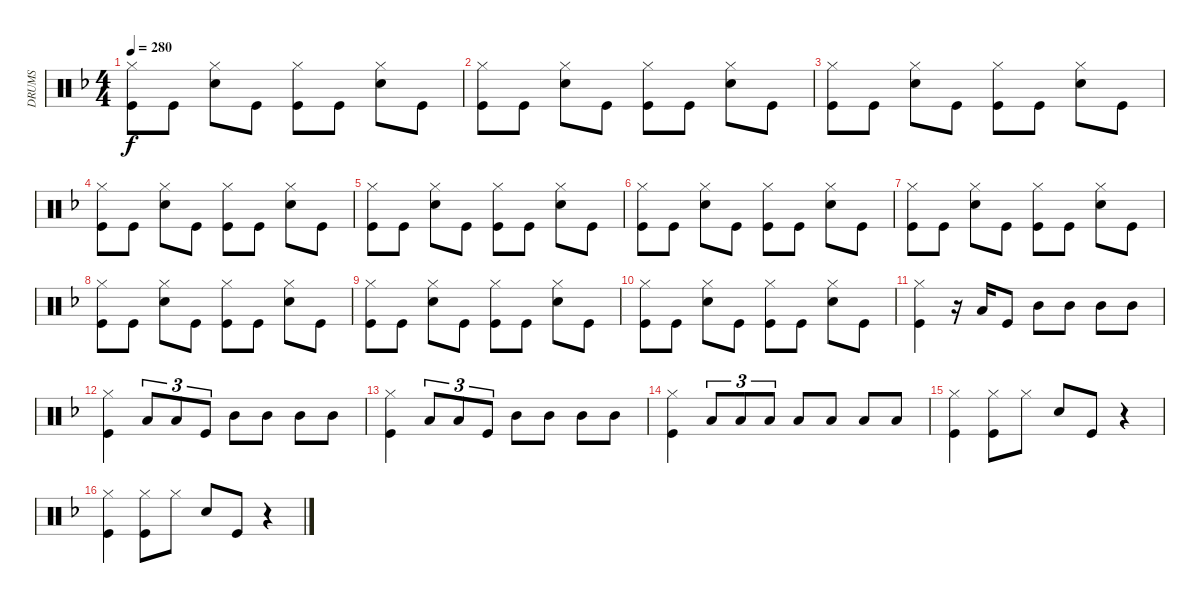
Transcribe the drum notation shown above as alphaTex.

\track ("DRUMS" "DRUMS") {instrument percussion}
\staff {score}
\articulation defaults
\ts (4 4)
\tempo 280
\clef neutral
\ks dminor
("Hi-Hat (closed)" "Kick (hit)").8{dy f} "Kick (hit)".8 ("Hi-Hat (closed)" "Snare (hit) 2").8 "Kick (hit)".8 ("Hi-Hat (closed)" "Kick (hit)").8 "Kick (hit)".8 ("Hi-Hat (closed)" "Snare (hit) 2").8 "Kick (hit)".8 |
("Hi-Hat (closed)" "Kick (hit)").8 "Kick (hit)".8 ("Hi-Hat (closed)" "Snare (hit) 2").8 "Kick (hit)".8 ("Hi-Hat (closed)" "Kick (hit)").8 "Kick (hit)".8 ("Hi-Hat (closed)" "Snare (hit) 2").8 "Kick (hit)".8 |
("Hi-Hat (closed)" "Kick (hit)").8 "Kick (hit)".8 ("Hi-Hat (closed)" "Snare (hit) 2").8 "Kick (hit)".8 ("Hi-Hat (closed)" "Kick (hit)").8 "Kick (hit)".8 ("Hi-Hat (closed)" "Snare (hit) 2").8 "Kick (hit)".8 |
("Hi-Hat (closed)" "Kick (hit)").8 "Kick (hit)".8 ("Hi-Hat (closed)" "Snare (hit) 2").8 "Kick (hit)".8 ("Hi-Hat (closed)" "Kick (hit)").8 "Kick (hit)".8 ("Hi-Hat (closed)" "Snare (hit) 2").8 "Kick (hit)".8 |
("Hi-Hat (closed)" "Kick (hit)").8 "Kick (hit)".8 ("Hi-Hat (closed)" "Snare (hit) 2").8 "Kick (hit)".8 ("Hi-Hat (closed)" "Kick (hit)").8 "Kick (hit)".8 ("Hi-Hat (closed)" "Snare (hit) 2").8 "Kick (hit)".8 |
("Hi-Hat (closed)" "Kick (hit)").8 "Kick (hit)".8 ("Hi-Hat (closed)" "Snare (hit) 2").8 "Kick (hit)".8 ("Hi-Hat (closed)" "Kick (hit)").8 "Kick (hit)".8 ("Hi-Hat (closed)" "Snare (hit) 2").8 "Kick (hit)".8 |
("Hi-Hat (closed)" "Kick (hit)").8 "Kick (hit)".8 ("Hi-Hat (closed)" "Snare (hit) 2").8 "Kick (hit)".8 ("Hi-Hat (closed)" "Kick (hit)").8 "Kick (hit)".8 ("Hi-Hat (closed)" "Snare (hit) 2").8 "Kick (hit)".8 |
("Hi-Hat (closed)" "Kick (hit)").8 "Kick (hit)".8 ("Hi-Hat (closed)" "Snare (hit) 2").8 "Kick (hit)".8 ("Hi-Hat (closed)" "Kick (hit)").8 "Kick (hit)".8 ("Hi-Hat (closed)" "Snare (hit) 2").8 "Kick (hit)".8 |
("Hi-Hat (closed)" "Kick (hit)").8 "Kick (hit)".8 ("Hi-Hat (closed)" "Snare (hit) 2").8 "Kick (hit)".8 ("Hi-Hat (closed)" "Kick (hit)").8 "Kick (hit)".8 ("Hi-Hat (closed)" "Snare (hit) 2").8 "Kick (hit)".8 |
("Hi-Hat (closed)" "Kick (hit)").8 "Kick (hit)".8 ("Hi-Hat (closed)" "Snare (hit) 2").8 "Kick (hit)".8 ("Hi-Hat (closed)" "Kick (hit)").8 "Kick (hit)".8 ("Hi-Hat (closed)" "Snare (hit) 2").8 "Kick (hit)".8 |
("Hi-Hat (closed)" "Kick (hit)").4 r.16 "Low Tom (hit)".16 "Kick (hit)".8 "Mid Tom (hit)".8 "Mid Tom (hit)".8 "Mid Tom (hit)".8 "Mid Tom (hit)".8 |
("Hi-Hat (closed)" "Kick (hit)").4 "Low Tom (hit)".8{tu (3 2)} "Low Tom (hit)".8{tu (3 2)} "Kick (hit)".8{tu (3 2)} "Mid Tom (hit)".8 "Mid Tom (hit)".8 "Mid Tom (hit)".8 "Mid Tom (hit)".8 |
("Hi-Hat (closed)" "Kick (hit)").4 "Low Tom (hit)".8{tu (3 2)} "Low Tom (hit)".8{tu (3 2)} "Kick (hit)".8{tu (3 2)} "Mid Tom (hit)".8 "Mid Tom (hit)".8 "Mid Tom (hit)".8 "Mid Tom (hit)".8 |
("Hi-Hat (closed)" "Kick (hit)").4 "Low Tom (hit)".8{tu (3 2)} "Low Tom (hit)".8{tu (3 2)} "Low Tom (hit)".8{tu (3 2)} "Low Tom (hit)".8 "Low Tom (hit)".8 "Low Tom (hit)".8 "Low Tom (hit)".8 |
("Hi-Hat (closed)" "Kick (hit)").4 ("Hi-Hat (closed)" "Kick (hit)").8 "Hi-Hat (closed)".8 "Snare (hit) 2".8 "Kick (hit)".8 r.4 |
("Hi-Hat (closed)" "Kick (hit)").4 ("Hi-Hat (closed)" "Kick (hit)").8 "Hi-Hat (closed)".8 "Snare (hit) 2".8 "Kick (hit)".8 r.4
